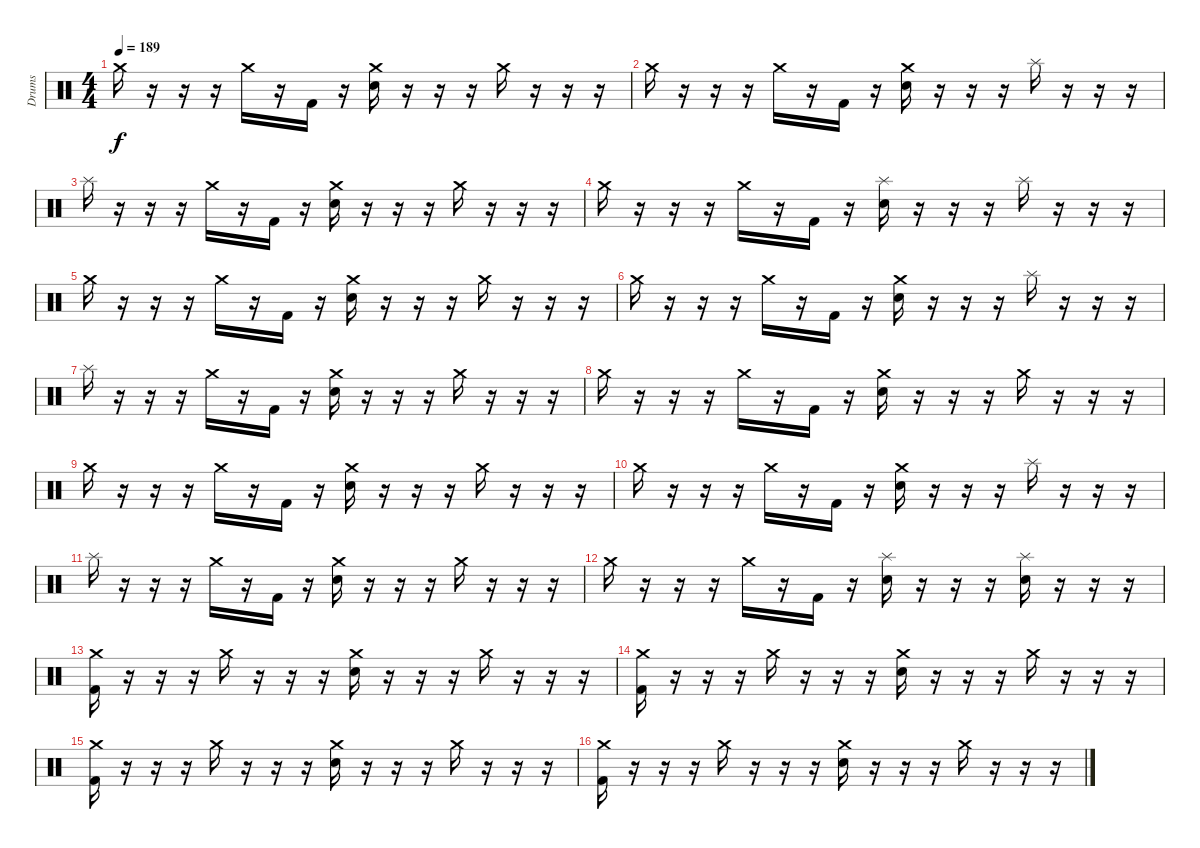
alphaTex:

\track ("Drums" "Drums") {instrument percussion}
\staff {score}
\articulation defaults
\ts (4 4)
\tempo 189
\clef neutral
\ks c "Crash medium (hit)".16{dy f}
r.16 r.16 r.16 "Crash medium (hit)".16 r.16 "Kick (hit) 2".16 r.16 ("Crash medium (hit)" "Electric Snare (hit)").16 r.16 r.16 r.16 "Crash medium (hit)".16 r.16 r.16 r.16 |
"Crash medium (hit)".16 r.16 r.16 r.16 "Crash medium (hit)".16 r.16 "Kick (hit) 2".16 r.16 ("Crash medium (hit)" "Electric Snare (hit)").16 r.16 r.16 r.16 "Splash (hit)".16 r.16 r.16 r.16 |
"Splash (hit)".16 r.16 r.16 r.16 "Crash medium (hit)".16 r.16 "Kick (hit) 2".16 r.16 ("Crash medium (hit)" "Electric Snare (hit)").16 r.16 r.16 r.16 "Crash medium (hit)".16 r.16 r.16 r.16 |
"Crash medium (hit)".16 r.16 r.16 r.16 "Crash medium (hit)".16 r.16 "Kick (hit) 2".16 r.16 ("Splash (hit)" "Electric Snare (hit)").16 r.16 r.16 r.16 "Splash (hit)".16 r.16 r.16 r.16 |
"Crash medium (hit)".16 r.16 r.16 r.16 "Crash medium (hit)".16 r.16 "Kick (hit) 2".16 r.16 ("Crash medium (hit)" "Electric Snare (hit)").16 r.16 r.16 r.16 "Crash medium (hit)".16 r.16 r.16 r.16 |
"Crash medium (hit)".16 r.16 r.16 r.16 "Crash medium (hit)".16 r.16 "Kick (hit) 2".16 r.16 ("Crash medium (hit)" "Electric Snare (hit)").16 r.16 r.16 r.16 "Splash (hit)".16 r.16 r.16 r.16 |
"Splash (hit)".16 r.16 r.16 r.16 "Crash medium (hit)".16 r.16 "Kick (hit) 2".16 r.16 ("Crash medium (hit)" "Electric Snare (hit)").16 r.16 r.16 r.16 "Crash medium (hit)".16 r.16 r.16 r.16 |
"Crash medium (hit)".16 r.16 r.16 r.16 "Crash medium (hit)".16 r.16 "Kick (hit) 2".16 r.16 ("Crash medium (hit)" "Electric Snare (hit)").16 r.16 r.16 r.16 "Crash medium (hit)".16 r.16 r.16 r.16 |
"Crash medium (hit)".16 r.16 r.16 r.16 "Crash medium (hit)".16 r.16 "Kick (hit) 2".16 r.16 ("Crash medium (hit)" "Electric Snare (hit)").16 r.16 r.16 r.16 "Crash medium (hit)".16 r.16 r.16 r.16 |
"Crash medium (hit)".16 r.16 r.16 r.16 "Crash medium (hit)".16 r.16 "Kick (hit) 2".16 r.16 ("Crash medium (hit)" "Electric Snare (hit)").16 r.16 r.16 r.16 "Splash (hit)".16 r.16 r.16 r.16 |
"Splash (hit)".16 r.16 r.16 r.16 "Crash medium (hit)".16 r.16 "Kick (hit) 2".16 r.16 ("Crash medium (hit)" "Electric Snare (hit)").16 r.16 r.16 r.16 "Crash medium (hit)".16 r.16 r.16 r.16 |
"Crash medium (hit)".16 r.16 r.16 r.16 "Crash medium (hit)".16 r.16 "Kick (hit) 2".16 r.16 ("Splash (hit)" "Electric Snare (hit)").16 r.16 r.16 r.16 ("Splash (hit)" "Electric Snare (hit)").16 r.16 r.16 r.16 |
("Crash medium (hit)" "Kick (hit) 2").16 r.16 r.16 r.16 "Crash medium (hit)".16 r.16 r.16 r.16 ("Crash medium (hit)" "Snare (hit) 2").16 r.16 r.16 r.16 "Crash medium (hit)".16 r.16 r.16 r.16 |
("Crash medium (hit)" "Kick (hit) 2").16 r.16 r.16 r.16 "Crash medium (hit)".16 r.16 r.16 r.16 ("Crash medium (hit)" "Snare (hit) 2").16 r.16 r.16 r.16 "Crash medium (hit)".16 r.16 r.16 r.16 |
("Crash medium (hit)" "Kick (hit) 2").16 r.16 r.16 r.16 "Crash medium (hit)".16 r.16 r.16 r.16 ("Crash medium (hit)" "Snare (hit) 2").16 r.16 r.16 r.16 "Crash medium (hit)".16 r.16 r.16 r.16 |
("Crash medium (hit)" "Kick (hit) 2").16 r.16 r.16 r.16 "Crash medium (hit)".16 r.16 r.16 r.16 ("Crash medium (hit)" "Snare (hit) 2").16 r.16 r.16 r.16 "Crash medium (hit)".16 r.16 r.16 r.16
